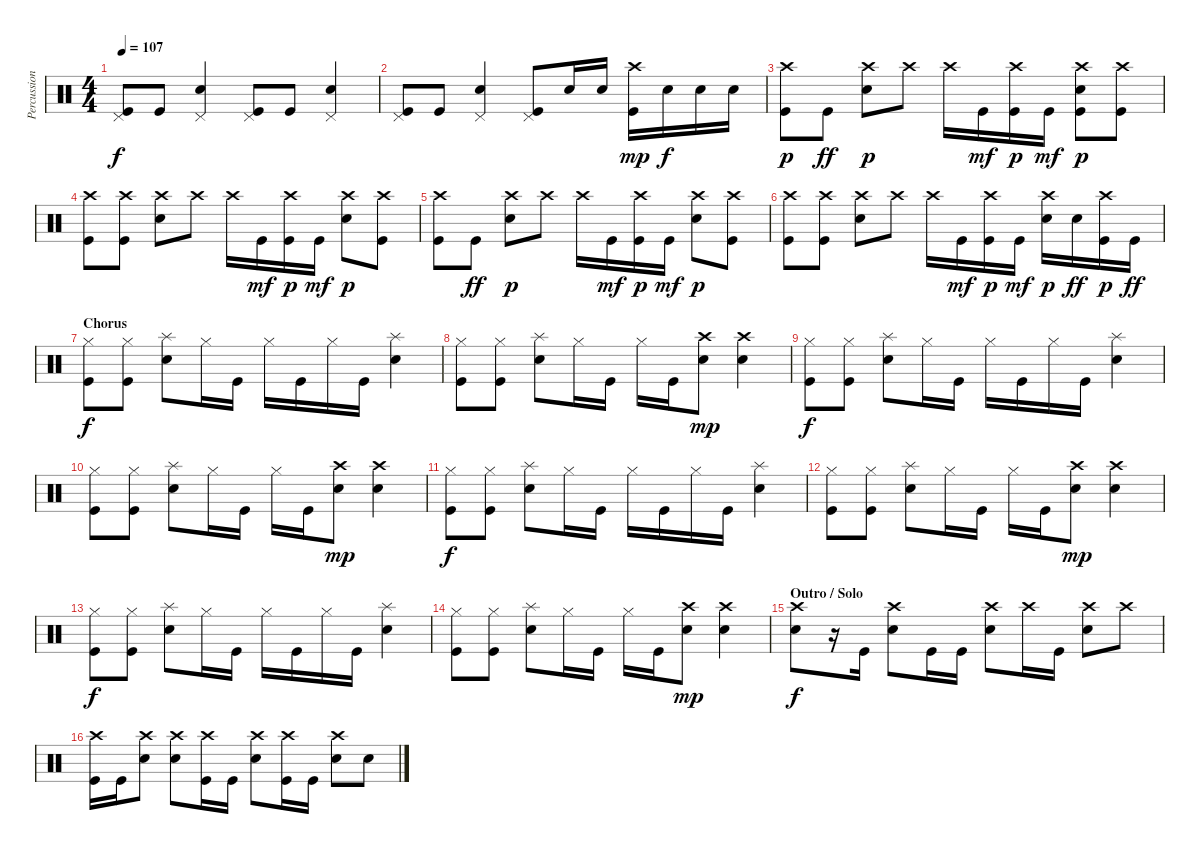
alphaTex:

\track ("Percussion" "Percussion") {instrument percussion}
\staff {score}
\articulation defaults
\ts (4 4)
\tempo 107
\clef neutral
\ks c
("Kick (hit)" "Pedal Hi-Hat (hit)").8{dy f} "Kick (hit)".8 ("Electric Snare (hit)" "Pedal Hi-Hat (hit)").4 ("Kick (hit)" "Pedal Hi-Hat (hit)").8 "Kick (hit)".8 ("Electric Snare (hit)" "Pedal Hi-Hat (hit)").4 |
("Kick (hit)" "Pedal Hi-Hat (hit)").8 "Kick (hit)".8 ("Electric Snare (hit)" "Pedal Hi-Hat (hit)").4 ("Kick (hit)" "Pedal Hi-Hat (hit)").8 "Electric Snare (hit)".16 "Electric Snare (hit)".16 ("Kick (hit)" "Crash high (hit)").16{dy mp} "Electric Snare (hit)".16{dy f} "Electric Snare (hit)".16 "Electric Snare (hit)".16 |
("Kick (hit)" "Crash high (hit)").8{dy p} "Kick (hit)".8{dy ff} ("Electric Snare (hit)" "Crash high (hit)").8{dy p} "Crash high (hit)".8 "Crash high (hit)".16 "Kick (hit)".16{dy mf} ("Kick (hit)" "Crash high (hit)").16{dy p} "Kick (hit)".16{dy mf} ("Electric Snare (hit)" "Kick (hit)" "Crash high (hit)").8{dy p} ("Kick (hit)" "Crash high (hit)").8 |
("Kick (hit)" "Crash high (hit)").8 ("Kick (hit)" "Crash high (hit)").8 ("Electric Snare (hit)" "Crash high (hit)").8 "Crash high (hit)".8 "Crash high (hit)".16 "Kick (hit)".16{dy mf} ("Kick (hit)" "Crash high (hit)").16{dy p} "Kick (hit)".16{dy mf} ("Electric Snare (hit)" "Crash high (hit)").8{dy p} ("Kick (hit)" "Crash high (hit)").8 |
("Kick (hit)" "Crash high (hit)").8 "Kick (hit)".8{dy ff} ("Electric Snare (hit)" "Crash high (hit)").8{dy p} "Crash high (hit)".8 "Crash high (hit)".16 "Kick (hit)".16{dy mf} ("Kick (hit)" "Crash high (hit)").16{dy p} "Kick (hit)".16{dy mf} ("Electric Snare (hit)" "Crash high (hit)").8{dy p} ("Kick (hit)" "Crash high (hit)").8 |
("Kick (hit)" "Crash high (hit)").8 ("Kick (hit)" "Crash high (hit)").8 ("Electric Snare (hit)" "Crash high (hit)").8 "Crash high (hit)".8 "Crash high (hit)".16 "Kick (hit)".16{dy mf} ("Kick (hit)" "Crash high (hit)").16{dy p} "Kick (hit)".16{dy mf} ("Electric Snare (hit)" "Crash high (hit)").16{dy p} "Electric Snare (hit)".16{dy ff} ("Kick (hit)" "Crash high (hit)").16{dy p} "Kick (hit)".16{dy ff} |
\section ("" "Chorus")
("Kick (hit)" "Hi-Hat (closed)").8{dy f} ("Kick (hit)" "Hi-Hat (closed)").8 ("Electric Snare (hit)" "Splash (hit)").8 "Hi-Hat (closed)".16 "Kick (hit)".16 "Hi-Hat (closed)".16 "Kick (hit)".16 "Hi-Hat (closed)".16 "Kick (hit)".16 ("Electric Snare (hit)" "Splash (hit)").4 |
("Kick (hit)" "Hi-Hat (closed)").8 ("Kick (hit)" "Hi-Hat (closed)").8 ("Electric Snare (hit)" "Splash (hit)").8 "Hi-Hat (closed)".16 "Kick (hit)".16 "Hi-Hat (closed)".16 "Kick (hit)".16 ("Electric Snare (hit)" "Crash high (hit)").8{dy mp} ("Electric Snare (hit)" "Crash high (hit)").4 |
("Kick (hit)" "Hi-Hat (closed)").8{dy f} ("Kick (hit)" "Hi-Hat (closed)").8 ("Electric Snare (hit)" "Splash (hit)").8 "Hi-Hat (closed)".16 "Kick (hit)".16 "Hi-Hat (closed)".16 "Kick (hit)".16 "Hi-Hat (closed)".16 "Kick (hit)".16 ("Electric Snare (hit)" "Splash (hit)").4 |
("Kick (hit)" "Hi-Hat (closed)").8 ("Kick (hit)" "Hi-Hat (closed)").8 ("Electric Snare (hit)" "Splash (hit)").8 "Hi-Hat (closed)".16 "Kick (hit)".16 "Hi-Hat (closed)".16 "Kick (hit)".16 ("Electric Snare (hit)" "Crash high (hit)").8{dy mp} ("Electric Snare (hit)" "Crash high (hit)").4 |
("Kick (hit)" "Hi-Hat (closed)").8{dy f} ("Kick (hit)" "Hi-Hat (closed)").8 ("Electric Snare (hit)" "Splash (hit)").8 "Hi-Hat (closed)".16 "Kick (hit)".16 "Hi-Hat (closed)".16 "Kick (hit)".16 "Hi-Hat (closed)".16 "Kick (hit)".16 ("Electric Snare (hit)" "Splash (hit)").4 |
("Kick (hit)" "Hi-Hat (closed)").8 ("Kick (hit)" "Hi-Hat (closed)").8 ("Electric Snare (hit)" "Splash (hit)").8 "Hi-Hat (closed)".16 "Kick (hit)".16 "Hi-Hat (closed)".16 "Kick (hit)".16 ("Electric Snare (hit)" "Crash high (hit)").8{dy mp} ("Electric Snare (hit)" "Crash high (hit)").4 |
("Kick (hit)" "Hi-Hat (closed)").8{dy f} ("Kick (hit)" "Hi-Hat (closed)").8 ("Electric Snare (hit)" "Splash (hit)").8 "Hi-Hat (closed)".16 "Kick (hit)".16 "Hi-Hat (closed)".16 "Kick (hit)".16 "Hi-Hat (closed)".16 "Kick (hit)".16 ("Electric Snare (hit)" "Splash (hit)").4 |
("Kick (hit)" "Hi-Hat (closed)").8 ("Kick (hit)" "Hi-Hat (closed)").8 ("Electric Snare (hit)" "Splash (hit)").8 "Hi-Hat (closed)".16 "Kick (hit)".16 "Hi-Hat (closed)".16 "Kick (hit)".16 ("Electric Snare (hit)" "Crash high (hit)").8{dy mp} ("Electric Snare (hit)" "Crash high (hit)").4 |
\section ("" "Outro / Solo")
("Electric Snare (hit)" "Crash high (hit)").8{dy f} r.16 "Kick (hit)".16 ("Electric Snare (hit)" "Crash high (hit)").8 "Kick (hit)".16 "Kick (hit)".16 ("Electric Snare (hit)" "Crash high (hit)").8 "Crash high (hit)".16 "Kick (hit)".16 ("Electric Snare (hit)" "Crash high (hit)").8 "Crash high (hit)".8 |
("Kick (hit)" "Crash high (hit)").16 "Kick (hit)".16 ("Electric Snare (hit)" "Crash high (hit)").8 ("Electric Snare (hit)" "Crash high (hit)").8 ("Kick (hit)" "Crash high (hit)").16 "Kick (hit)".16 ("Electric Snare (hit)" "Crash high (hit)").8 ("Kick (hit)" "Crash high (hit)").16 "Kick (hit)".16 ("Electric Snare (hit)" "Crash high (hit)").8 "Electric Snare (hit)".8
